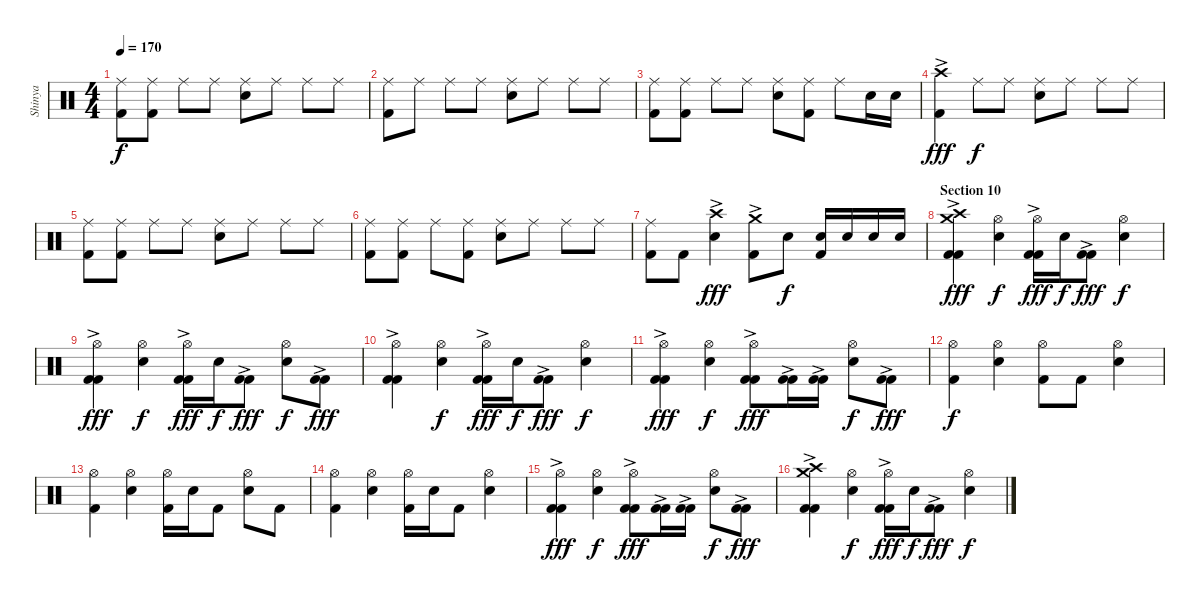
\track ("Shinya" "Shinya") {instrument percussion}
\staff {score}
\articulation defaults
\ts (4 4)
\tempo 170
\clef neutral
\ks c
("Ride (middle)" "Kick (hit) 2").8{dy f} ("Ride (middle)" "Kick (hit) 2").8 "Ride (middle)".8 "Ride (middle)".8 ("Ride (middle)" "Snare (hit) 2").8 "Ride (middle)".8 "Ride (middle)".8 "Ride (middle)".8 |
("Ride (middle)" "Kick (hit) 2").8 "Ride (middle)".8 "Ride (middle)".8 "Ride (middle)".8 ("Ride (middle)" "Snare (hit) 2").8 "Ride (middle)".8 "Ride (middle)".8 "Ride (middle)".8 |
("Ride (middle)" "Kick (hit) 2").8 ("Ride (middle)" "Kick (hit) 2").8 "Ride (middle)".8 "Ride (middle)".8 ("Ride (middle)" "Snare (hit) 2").8 ("Ride (middle)" "Kick (hit) 2").8 "Ride (middle)".8 "Snare (hit) 2".16 "Snare (hit) 2".16 |
("Crash high (hit)"{ac} "Kick (hit) 2").4{dy fff} "Ride (middle)".8{dy f} "Ride (middle)".8 ("Ride (middle)" "Snare (hit) 2").8 "Ride (middle)".8 "Ride (middle)".8 "Ride (middle)".8 |
("Ride (middle)" "Kick (hit) 2").8 ("Ride (middle)" "Kick (hit) 2").8 "Ride (middle)".8 "Ride (middle)".8 ("Ride (middle)" "Snare (hit) 2").8 "Ride (middle)".8 "Ride (middle)".8 "Ride (middle)".8 |
("Ride (middle)" "Kick (hit) 2").8 ("Ride (middle)" "Kick (hit) 2").8 "Ride (middle)".8 ("Ride (middle)" "Kick (hit) 2").8 ("Ride (middle)" "Snare (hit) 2").8 "Ride (middle)".8 "Ride (middle)".8 "Ride (middle)".8 |
("Ride (middle)" "Kick (hit) 2").8 "Kick (hit) 2".8 ("Crash high (hit)"{ac} "Snare (hit) 2").4{dy fff} ("Crash medium (hit)"{ac} "Kick (hit) 2").8 "Snare (hit) 2".8{dy f} ("Snare (hit) 2" "Kick (hit) 2").16 "Snare (hit) 2".16 "Snare (hit) 2".16 "Snare (hit) 2".16 |
\section ("" "Section 10")
("Crash medium (hit)" "Crash high (hit)" "Kick (hit) 2"{ac} "Kick (hit) 2").4{dy fff} ("Hi-Hat (open)" "Snare (hit) 2").4{dy f} ("Hi-Hat (open)" "Kick (hit) 2"{ac} "Kick (hit) 2").16{dy fff} "Snare (hit) 2".16{dy f} ("Kick (hit) 2"{ac} "Kick (hit) 2").8{dy fff} ("Hi-Hat (open)" "Snare (hit) 2").4{dy f} |
("Hi-Hat (open)" "Kick (hit) 2"{ac} "Kick (hit) 2").4{dy fff} ("Hi-Hat (open)" "Snare (hit) 2").4{dy f} ("Hi-Hat (open)" "Kick (hit) 2"{ac} "Kick (hit) 2").16{dy fff} "Snare (hit) 2".16{dy f} ("Kick (hit) 2"{ac} "Kick (hit) 2").8{dy fff} ("Hi-Hat (open)" "Snare (hit) 2").8{dy f} ("Kick (hit) 2"{ac} "Kick (hit) 2").8{dy fff} |
("Hi-Hat (open)" "Kick (hit) 2"{ac} "Kick (hit) 2").4 ("Hi-Hat (open)" "Snare (hit) 2").4{dy f} ("Hi-Hat (open)" "Kick (hit) 2"{ac} "Kick (hit) 2").16{dy fff} "Snare (hit) 2".16{dy f} ("Kick (hit) 2"{ac} "Kick (hit) 2").8{dy fff} ("Hi-Hat (open)" "Snare (hit) 2").4{dy f} |
("Hi-Hat (open)" "Kick (hit) 2"{ac} "Kick (hit) 2").4{dy fff} ("Hi-Hat (open)" "Snare (hit) 2").4{dy f} ("Hi-Hat (open)" "Kick (hit) 2"{ac} "Kick (hit) 2").8{dy fff} ("Kick (hit) 2"{ac} "Kick (hit) 2").16 ("Kick (hit) 2"{ac} "Kick (hit) 2").16 ("Hi-Hat (open)" "Snare (hit) 2").8{dy f} ("Kick (hit) 2"{ac} "Kick (hit) 2").8{dy fff} |
("Hi-Hat (open)" "Kick (hit) 2").4{dy f} ("Hi-Hat (open)" "Snare (hit) 2").4 ("Hi-Hat (open)" "Kick (hit) 2").8 "Kick (hit) 2".8 ("Hi-Hat (open)" "Snare (hit) 2").4 |
("Hi-Hat (open)" "Kick (hit) 2").4 ("Hi-Hat (open)" "Snare (hit) 2").4 ("Hi-Hat (open)" "Kick (hit) 2").16 "Snare (hit) 2".16 "Kick (hit) 2".8 ("Hi-Hat (open)" "Snare (hit) 2").8 "Kick (hit) 2".8 |
("Hi-Hat (open)" "Kick (hit) 2").4 ("Hi-Hat (open)" "Snare (hit) 2").4 ("Hi-Hat (open)" "Kick (hit) 2").16 "Snare (hit) 2".16 "Kick (hit) 2".8 ("Hi-Hat (open)" "Snare (hit) 2").4 |
("Hi-Hat (open)" "Kick (hit) 2"{ac} "Kick (hit) 2").4{dy fff} ("Hi-Hat (open)" "Snare (hit) 2").4{dy f} ("Hi-Hat (open)" "Kick (hit) 2"{ac} "Kick (hit) 2").8{dy fff} ("Kick (hit) 2"{ac} "Kick (hit) 2").16 ("Kick (hit) 2"{ac} "Kick (hit) 2").16 ("Hi-Hat (open)" "Snare (hit) 2").8{dy f} ("Kick (hit) 2"{ac} "Kick (hit) 2").8{dy fff} |
("Crash medium (hit)" "Crash high (hit)" "Kick (hit) 2"{ac} "Kick (hit) 2").4 ("Hi-Hat (open)" "Snare (hit) 2").4{dy f} ("Hi-Hat (open)" "Kick (hit) 2"{ac} "Kick (hit) 2").16{dy fff} "Snare (hit) 2".16{dy f} ("Kick (hit) 2"{ac} "Kick (hit) 2").8{dy fff} ("Hi-Hat (open)" "Snare (hit) 2").4{dy f}
